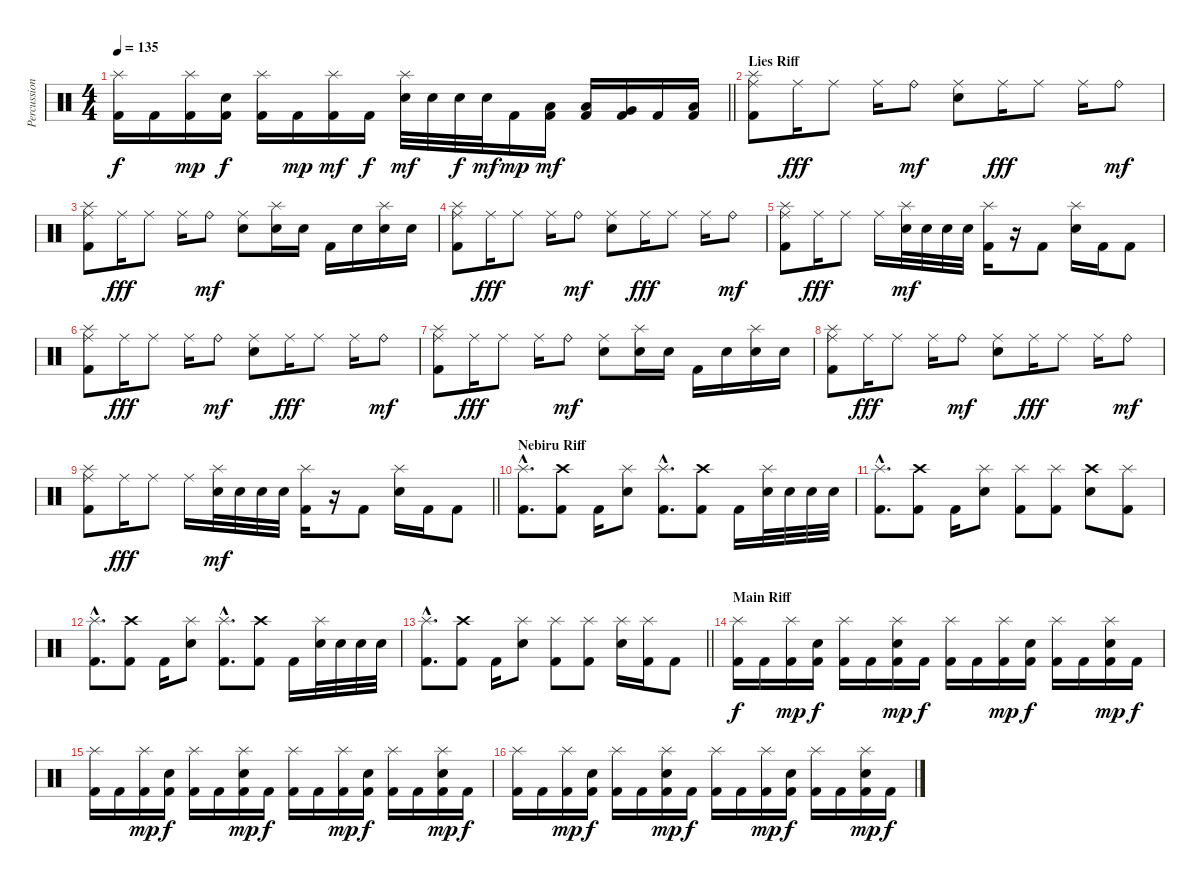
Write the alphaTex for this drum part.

\track ("Percussion" "Percussion") {instrument percussion}
\staff {score}
\articulation defaults
\ts (4 4)
\tempo 135
\clef neutral
\barLineRight lightlight
\ks c
("Splash (hit)" "Kick (hit) 2").16{dy f} "Kick (hit) 2".16 ("Splash (hit)" "Kick (hit) 2").16{dy mp} ("Electric Snare (hit)" "Kick (hit) 2").16{dy f} ("Splash (hit)" "Kick (hit) 2").16 "Kick (hit) 2".16{dy mp} ("Splash (hit)" "Kick (hit) 2").16{dy mf} "Kick (hit) 2".16{dy f} ("Splash (hit)" "Electric Snare (hit)").32{dy mf} "Electric Snare (hit)".32 "Electric Snare (hit)".32{dy f} "Electric Snare (hit)".32{dy mf} "Kick (hit) 2".16{dy mp} ("Low Tom (hit)" "Kick (hit) 2").16{dy mf} ("Low Tom (hit)" "Kick (hit) 2").16 ("Very Low Tom (hit)" "Kick (hit) 2").16 "Kick (hit) 2".16 ("Low Floor Tom (hit)" "Kick (hit) 2").16 |
\section ("" "Lies Riff")
("Ride (middle)" "Splash (hit)" "Kick (hit) 2").8 "Ride (middle)".16{dy fff} "Ride (middle)".8 "Ride (middle)".16 "Ride (bell)".8{dy mf} ("Ride (middle)" "Electric Snare (hit)").8 "Ride (middle)".16{dy fff} "Ride (middle)".8 "Ride (middle)".16 "Ride (bell)".8{dy mf} |
("Ride (middle)" "Splash (hit)" "Kick (hit) 2").8 "Ride (middle)".16{dy fff} "Ride (middle)".8 "Ride (middle)".16 "Ride (bell)".8{dy mf} ("Ride (middle)" "Electric Snare (hit)").8 ("Splash (hit)" "Electric Snare (hit)").16 "Electric Snare (hit)".16 "Kick (hit) 2".16 "Electric Snare (hit)".16 ("Splash (hit)" "Electric Snare (hit)").16 "Electric Snare (hit)".16 |
("Ride (middle)" "Splash (hit)" "Kick (hit) 2").8 "Ride (middle)".16{dy fff} "Ride (middle)".8 "Ride (middle)".16 "Ride (bell)".8{dy mf} ("Ride (middle)" "Electric Snare (hit)").8 "Ride (middle)".16{dy fff} "Ride (middle)".8 "Ride (middle)".16 "Ride (bell)".8{dy mf} |
("Ride (middle)" "Splash (hit)" "Kick (hit) 2").8 "Ride (middle)".16{dy fff} "Ride (middle)".8 "Ride (middle)".16 ("Splash (hit)" "Electric Snare (hit)").32{dy mf} "Electric Snare (hit)".32 "Electric Snare (hit)".32 "Electric Snare (hit)".32 ("Splash (hit)" "Kick (hit) 2").16 r.16 "Kick (hit) 2".8 ("Splash (hit)" "Electric Snare (hit)").16 "Kick (hit) 2".16 "Kick (hit) 2".8 |
("Ride (middle)" "Splash (hit)" "Kick (hit) 2").8 "Ride (middle)".16{dy fff} "Ride (middle)".8 "Ride (middle)".16 "Ride (bell)".8{dy mf} ("Ride (middle)" "Electric Snare (hit)").8 "Ride (middle)".16{dy fff} "Ride (middle)".8 "Ride (middle)".16 "Ride (bell)".8{dy mf} |
("Ride (middle)" "Splash (hit)" "Kick (hit) 2").8 "Ride (middle)".16{dy fff} "Ride (middle)".8 "Ride (middle)".16 "Ride (bell)".8{dy mf} ("Ride (middle)" "Electric Snare (hit)").8 ("Splash (hit)" "Electric Snare (hit)").16 "Electric Snare (hit)".16 "Kick (hit) 2".16 "Electric Snare (hit)".16 ("Splash (hit)" "Electric Snare (hit)").16 "Electric Snare (hit)".16 |
("Ride (middle)" "Splash (hit)" "Kick (hit) 2").8 "Ride (middle)".16{dy fff} "Ride (middle)".8 "Ride (middle)".16 "Ride (bell)".8{dy mf} ("Ride (middle)" "Electric Snare (hit)").8 "Ride (middle)".16{dy fff} "Ride (middle)".8 "Ride (middle)".16 "Ride (bell)".8{dy mf} |
\barLineRight lightlight
("Ride (middle)" "Splash (hit)" "Kick (hit) 2").8 "Ride (middle)".16{dy fff} "Ride (middle)".8 "Ride (middle)".16 ("Splash (hit)" "Electric Snare (hit)").32{dy mf} "Electric Snare (hit)".32 "Electric Snare (hit)".32 "Electric Snare (hit)".32 ("Splash (hit)" "Kick (hit) 2").16 r.16 "Kick (hit) 2".8 ("Splash (hit)" "Electric Snare (hit)").16 "Kick (hit) 2".16 "Kick (hit) 2".8 |
\section ("" "Nebiru Riff")
("Splash (hit)"{hac} "Kick (hit) 2"{hac}).8{d} ("Crash high (hit)" "Kick (hit) 2").8 "Kick (hit) 2".16 ("Splash (hit)" "Electric Snare (hit)").8 ("Splash (hit)"{hac} "Kick (hit) 2"{hac}).8{d} ("Crash high (hit)" "Kick (hit) 2").8 "Kick (hit) 2".16 ("Splash (hit)" "Electric Snare (hit)").32 "Electric Snare (hit)".32 "Electric Snare (hit)".32 "Electric Snare (hit)".32 |
("Splash (hit)"{hac} "Kick (hit) 2"{hac}).8{d} ("Crash high (hit)" "Kick (hit) 2").8 "Kick (hit) 2".16 ("Splash (hit)" "Electric Snare (hit)").8 ("Splash (hit)" "Kick (hit) 2").8 ("Splash (hit)" "Kick (hit) 2").8 ("Crash high (hit)" "Electric Snare (hit)").8 ("Splash (hit)" "Kick (hit) 2").8 |
("Splash (hit)"{hac} "Kick (hit) 2"{hac}).8{d} ("Crash high (hit)" "Kick (hit) 2").8 "Kick (hit) 2".16 ("Splash (hit)" "Electric Snare (hit)").8 ("Splash (hit)"{hac} "Kick (hit) 2"{hac}).8{d} ("Crash high (hit)" "Kick (hit) 2").8 "Kick (hit) 2".16 ("Splash (hit)" "Electric Snare (hit)").32 "Electric Snare (hit)".32 "Electric Snare (hit)".32 "Electric Snare (hit)".32 |
\barLineRight lightlight
("Splash (hit)"{hac} "Kick (hit) 2"{hac}).8{d} ("Crash high (hit)" "Kick (hit) 2").8 "Kick (hit) 2".16 ("Splash (hit)" "Electric Snare (hit)").8 ("Splash (hit)" "Kick (hit) 2").8 ("Splash (hit)" "Kick (hit) 2").8 ("Splash (hit)" "Electric Snare (hit)").16 ("Splash (hit)" "Kick (hit) 2").16 "Kick (hit) 2".8 |
\section ("" "Main Riff")
("Splash (hit)" "Kick (hit) 2").16{dy f} "Kick (hit) 2".16 ("Splash (hit)" "Kick (hit) 2").16{dy mp} ("Electric Snare (hit)" "Kick (hit) 2").16{dy f} ("Splash (hit)" "Kick (hit) 2").16 "Kick (hit) 2".16 ("Splash (hit)" "Electric Snare (hit)" "Kick (hit) 2").16{dy mp} "Kick (hit) 2".16{dy f} ("Splash (hit)" "Kick (hit) 2").16 "Kick (hit) 2".16 ("Splash (hit)" "Kick (hit) 2").16{dy mp} ("Electric Snare (hit)" "Kick (hit) 2").16{dy f} ("Splash (hit)" "Kick (hit) 2").16 "Kick (hit) 2".16 ("Splash (hit)" "Electric Snare (hit)" "Kick (hit) 2").16{dy mp} "Kick (hit) 2".16{dy f} |
("Splash (hit)" "Kick (hit) 2").16 "Kick (hit) 2".16 ("Splash (hit)" "Kick (hit) 2").16{dy mp} ("Electric Snare (hit)" "Kick (hit) 2").16{dy f} ("Splash (hit)" "Kick (hit) 2").16 "Kick (hit) 2".16 ("Splash (hit)" "Electric Snare (hit)" "Kick (hit) 2").16{dy mp} "Kick (hit) 2".16{dy f} ("Splash (hit)" "Kick (hit) 2").16 "Kick (hit) 2".16 ("Splash (hit)" "Kick (hit) 2").16{dy mp} ("Electric Snare (hit)" "Kick (hit) 2").16{dy f} ("Splash (hit)" "Kick (hit) 2").16 "Kick (hit) 2".16 ("Splash (hit)" "Electric Snare (hit)" "Kick (hit) 2").16{dy mp} "Kick (hit) 2".16{dy f} |
("Splash (hit)" "Kick (hit) 2").16 "Kick (hit) 2".16 ("Splash (hit)" "Kick (hit) 2").16{dy mp} ("Electric Snare (hit)" "Kick (hit) 2").16{dy f} ("Splash (hit)" "Kick (hit) 2").16 "Kick (hit) 2".16 ("Splash (hit)" "Electric Snare (hit)" "Kick (hit) 2").16{dy mp} "Kick (hit) 2".16{dy f} ("Splash (hit)" "Kick (hit) 2").16 "Kick (hit) 2".16 ("Splash (hit)" "Kick (hit) 2").16{dy mp} ("Electric Snare (hit)" "Kick (hit) 2").16{dy f} ("Splash (hit)" "Kick (hit) 2").16 "Kick (hit) 2".16 ("Splash (hit)" "Electric Snare (hit)" "Kick (hit) 2").16{dy mp} "Kick (hit) 2".16{dy f}
